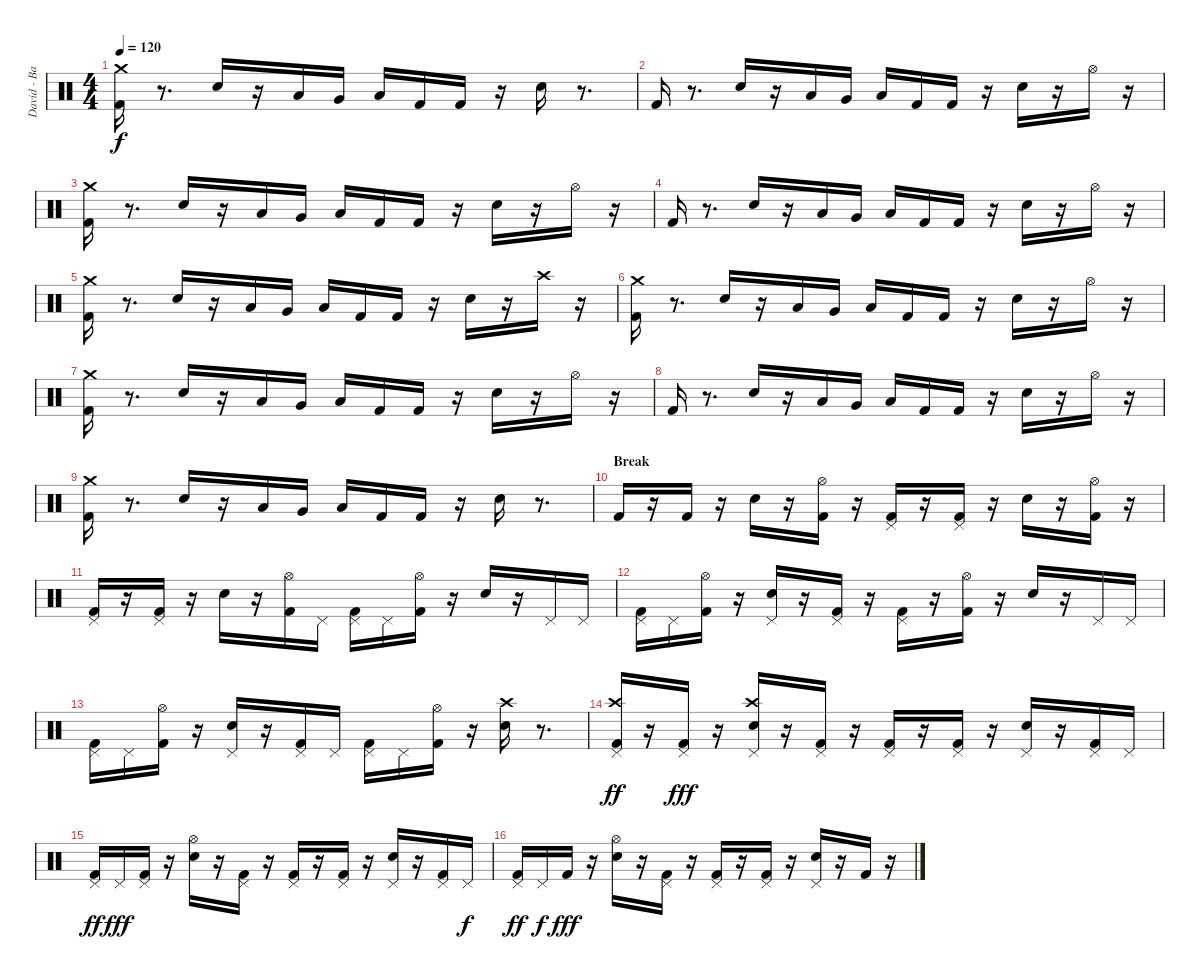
\track ("David - Batterie" "David - Ba") {instrument percussion}
\staff {score}
\articulation defaults
\ts (4 4)
\tempo 120
\clef neutral
\ks c
("Kick (hit) 2" "Crash medium (hit)").16{dy f} r.8{d} "Electric Snare (hit)".16 r.16 "Low Tom (hit)".16 "Very Low Tom (hit)".16 "Low Floor Tom (hit)".16 "Kick (hit) 2".16 "Kick (hit) 2".16 r.16 "Electric Snare (hit)".16 r.8{d} |
"Kick (hit) 2".16 r.8{d} "Electric Snare (hit)".16 r.16 "Low Tom (hit)".16 "Very Low Tom (hit)".16 "Low Floor Tom (hit)".16 "Kick (hit) 2".16 "Kick (hit) 2".16 r.16 "Electric Snare (hit)".16 r.16 "Hi-Hat (open)".16 r.16 |
("Kick (hit) 2" "Crash medium (hit)").16 r.8{d} "Electric Snare (hit)".16 r.16 "Low Tom (hit)".16 "Very Low Tom (hit)".16 "Low Floor Tom (hit)".16 "Kick (hit) 2".16 "Kick (hit) 2".16 r.16 "Electric Snare (hit)".16 r.16 "Hi-Hat (open)".16 r.16 |
"Kick (hit) 2".16 r.8{d} "Electric Snare (hit)".16 r.16 "Low Tom (hit)".16 "Very Low Tom (hit)".16 "Low Floor Tom (hit)".16 "Kick (hit) 2".16 "Kick (hit) 2".16 r.16 "Electric Snare (hit)".16 r.16 "Hi-Hat (open)".16 r.16 |
("Crash medium (hit)" "Kick (hit) 2").16 r.8{d} "Electric Snare (hit)".16 r.16 "Low Tom (hit)".16 "Very Low Tom (hit)".16 "Low Floor Tom (hit)".16 "Kick (hit) 2".16 "Kick (hit) 2".16 r.16 "Electric Snare (hit)".16 r.16 "Crash high (hit)".16 r.16 |
("Kick (hit) 2" "Crash medium (hit)").16 r.8{d} "Electric Snare (hit)".16 r.16 "Low Tom (hit)".16 "Very Low Tom (hit)".16 "Low Floor Tom (hit)".16 "Kick (hit) 2".16 "Kick (hit) 2".16 r.16 "Electric Snare (hit)".16 r.16 "Hi-Hat (open)".16 r.16 |
("Crash medium (hit)" "Kick (hit) 2").16 r.8{d} "Electric Snare (hit)".16 r.16 "Low Tom (hit)".16 "Very Low Tom (hit)".16 "Low Floor Tom (hit)".16 "Kick (hit) 2".16 "Kick (hit) 2".16 r.16 "Electric Snare (hit)".16 r.16 "Hi-Hat (open)".16 r.16 |
"Kick (hit) 2".16 r.8{d} "Electric Snare (hit)".16 r.16 "Low Tom (hit)".16 "Very Low Tom (hit)".16 "Low Floor Tom (hit)".16 "Kick (hit) 2".16 "Kick (hit) 2".16 r.16 "Electric Snare (hit)".16 r.16 "Hi-Hat (open)".16 r.16 |
("Kick (hit) 2" "Crash medium (hit)").16 r.8{d} "Electric Snare (hit)".16 r.16 "Low Tom (hit)".16 "Very Low Tom (hit)".16 "Low Floor Tom (hit)".16 "Kick (hit) 2".16 "Kick (hit) 2".16 r.16 "Electric Snare (hit)".16 r.8{d} |
\section ("" "Break")
"Kick (hit) 2".16 r.16 "Kick (hit) 2".16 r.16 "Electric Snare (hit)".16 r.16 ("Hi-Hat (open)" "Kick (hit) 2").16 r.16 ("Pedal Hi-Hat (hit)" "Kick (hit) 2").16 r.16 ("Pedal Hi-Hat (hit)" "Kick (hit) 2").16 r.16 "Electric Snare (hit)".16 r.16 ("Hi-Hat (open)" "Kick (hit) 2").16 r.16 |
("Kick (hit) 2" "Pedal Hi-Hat (hit)").16 r.16 ("Kick (hit) 2" "Pedal Hi-Hat (hit)").16 r.16 "Electric Snare (hit)".16 r.16 ("Kick (hit) 2" "Hi-Hat (open)").16 "Pedal Hi-Hat (hit)".16 ("Kick (hit) 2" "Pedal Hi-Hat (hit)").16 "Pedal Hi-Hat (hit)".16 ("Hi-Hat (open)" "Kick (hit) 2").16 r.16 "Electric Snare (hit)".16 r.16 "Pedal Hi-Hat (hit)".16 "Pedal Hi-Hat (hit)".16 |
("Kick (hit) 2" "Pedal Hi-Hat (hit)").16 "Pedal Hi-Hat (hit)".16 ("Hi-Hat (open)" "Kick (hit) 2").16 r.16 ("Pedal Hi-Hat (hit)" "Electric Snare (hit)").16 r.16 ("Pedal Hi-Hat (hit)" "Kick (hit) 2").16 r.16 ("Pedal Hi-Hat (hit)" "Kick (hit) 2").16 r.16 ("Hi-Hat (open)" "Kick (hit) 2").16 r.16 "Electric Snare (hit)".16 r.16 "Pedal Hi-Hat (hit)".16 "Pedal Hi-Hat (hit)".16 |
("Kick (hit) 2" "Pedal Hi-Hat (hit)").16 "Pedal Hi-Hat (hit)".16 ("Kick (hit) 2" "Hi-Hat (open)").16 r.16 ("Pedal Hi-Hat (hit)" "Electric Snare (hit)").16 r.16 ("Pedal Hi-Hat (hit)" "Kick (hit) 2").16 "Pedal Hi-Hat (hit)".16 ("Pedal Hi-Hat (hit)" "Kick (hit) 2").16 "Pedal Hi-Hat (hit)".16 ("Hi-Hat (open)" "Kick (hit) 2").16 r.16 ("Crash high (hit)" "Electric Snare (hit)").16 r.8{d} |
("Kick (hit) 2" "Pedal Hi-Hat (hit)" "Crash high (hit)").16{dy ff} r.16 ("Kick (hit) 2" "Pedal Hi-Hat (hit)").16{dy fff} r.16 ("Electric Snare (hit)" "Pedal Hi-Hat (hit)" "Crash high (hit)").16 r.16 ("Kick (hit) 2" "Pedal Hi-Hat (hit)").16 r.16 ("Kick (hit) 2" "Pedal Hi-Hat (hit)").16 r.16 ("Kick (hit) 2" "Pedal Hi-Hat (hit)").16 r.16 ("Electric Snare (hit)" "Pedal Hi-Hat (hit)").16 r.16 ("Kick (hit) 2" "Pedal Hi-Hat (hit)").16 "Pedal Hi-Hat (hit)".16 |
("Pedal Hi-Hat (hit)" "Kick (hit) 2").16{dy ff} "Pedal Hi-Hat (hit)".16{dy fff} ("Pedal Hi-Hat (hit)" "Kick (hit) 2").16 r.16 ("Electric Snare (hit)" "Hi-Hat (open)").16 r.16 ("Kick (hit) 2" "Pedal Hi-Hat (hit)").16 r.16 ("Kick (hit) 2" "Pedal Hi-Hat (hit)").16 r.16 ("Kick (hit) 2" "Pedal Hi-Hat (hit)").16 r.16 ("Electric Snare (hit)" "Pedal Hi-Hat (hit)").16 r.16 ("Kick (hit) 2" "Pedal Hi-Hat (hit)").16 "Pedal Hi-Hat (hit)".16{dy f} |
("Pedal Hi-Hat (hit)" "Kick (hit) 2").16{dy ff} "Pedal Hi-Hat (hit)".16{dy f} "Kick (hit) 2".16{dy fff} r.16 ("Electric Snare (hit)" "Hi-Hat (open)").16 r.16 ("Kick (hit) 2" "Pedal Hi-Hat (hit)").16 r.16 ("Kick (hit) 2" "Pedal Hi-Hat (hit)").16 r.16 ("Kick (hit) 2" "Pedal Hi-Hat (hit)").16 r.16 ("Electric Snare (hit)" "Pedal Hi-Hat (hit)").16 r.16 "Kick (hit) 2".16 r.16
